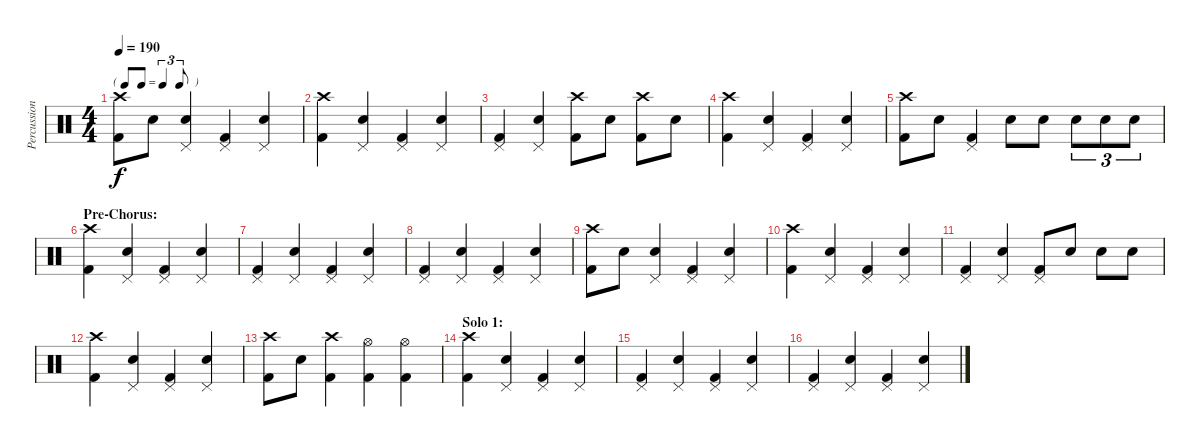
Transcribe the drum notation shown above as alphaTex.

\track ("Percussion" "Percussion") {instrument percussion}
\staff {score}
\articulation defaults
\ts (4 4)
\tf triplet8th
\tempo 190
\clef neutral
\ks c
("Crash high (hit)" "Kick (hit) 2").8{dy f} "Electric Snare (hit)".8 ("Pedal Hi-Hat (hit)" "Electric Snare (hit)").4 ("Pedal Hi-Hat (hit)" "Kick (hit) 2").4 ("Pedal Hi-Hat (hit)" "Electric Snare (hit)").4 |
("Crash high (hit)" "Kick (hit) 2").4 ("Pedal Hi-Hat (hit)" "Electric Snare (hit)").4 ("Pedal Hi-Hat (hit)" "Kick (hit) 2").4 ("Pedal Hi-Hat (hit)" "Electric Snare (hit)").4 |
("Pedal Hi-Hat (hit)" "Kick (hit) 2").4 ("Pedal Hi-Hat (hit)" "Electric Snare (hit)").4 ("Crash high (hit)" "Kick (hit) 2").8 "Electric Snare (hit)".8 ("Crash high (hit)" "Kick (hit) 2").8 "Electric Snare (hit)".8 |
("Crash high (hit)" "Kick (hit) 2").4 ("Pedal Hi-Hat (hit)" "Electric Snare (hit)").4 ("Pedal Hi-Hat (hit)" "Kick (hit) 2").4 ("Pedal Hi-Hat (hit)" "Electric Snare (hit)").4 |
("Crash high (hit)" "Kick (hit) 2").8 "Electric Snare (hit)".8 ("Pedal Hi-Hat (hit)" "Kick (hit) 2").4 "Electric Snare (hit)".8 "Electric Snare (hit)".8 "Electric Snare (hit)".8{tu (3 2)} "Electric Snare (hit)".8{tu (3 2)} "Electric Snare (hit)".8{tu (3 2)} |
\section ("" "Pre-Chorus:")
("Crash high (hit)" "Kick (hit) 2").4 ("Pedal Hi-Hat (hit)" "Electric Snare (hit)").4 ("Pedal Hi-Hat (hit)" "Kick (hit) 2").4 ("Pedal Hi-Hat (hit)" "Electric Snare (hit)").4 |
("Pedal Hi-Hat (hit)" "Kick (hit) 2").4 ("Pedal Hi-Hat (hit)" "Electric Snare (hit)").4 ("Pedal Hi-Hat (hit)" "Kick (hit) 2").4 ("Pedal Hi-Hat (hit)" "Electric Snare (hit)").4 |
("Pedal Hi-Hat (hit)" "Kick (hit) 2").4 ("Pedal Hi-Hat (hit)" "Electric Snare (hit)").4 ("Pedal Hi-Hat (hit)" "Kick (hit) 2").4 ("Pedal Hi-Hat (hit)" "Electric Snare (hit)").4 |
("Crash high (hit)" "Kick (hit) 2").8 "Electric Snare (hit)".8 ("Pedal Hi-Hat (hit)" "Electric Snare (hit)").4 ("Pedal Hi-Hat (hit)" "Kick (hit) 2").4 ("Pedal Hi-Hat (hit)" "Electric Snare (hit)").4 |
("Crash high (hit)" "Kick (hit) 2").4 ("Pedal Hi-Hat (hit)" "Electric Snare (hit)").4 ("Pedal Hi-Hat (hit)" "Kick (hit) 2").4 ("Pedal Hi-Hat (hit)" "Electric Snare (hit)").4 |
("Pedal Hi-Hat (hit)" "Kick (hit) 2").4 ("Pedal Hi-Hat (hit)" "Electric Snare (hit)").4 ("Pedal Hi-Hat (hit)" "Kick (hit) 2").8 "Electric Snare (hit)".8 "Electric Snare (hit)".8 "Electric Snare (hit)".8 |
("Crash high (hit)" "Kick (hit) 2").4 ("Pedal Hi-Hat (hit)" "Electric Snare (hit)").4 ("Pedal Hi-Hat (hit)" "Kick (hit) 2").4 ("Pedal Hi-Hat (hit)" "Electric Snare (hit)").4 |
("Crash high (hit)" "Kick (hit) 2").8 "Electric Snare (hit)".8 ("Crash high (hit)" "Kick (hit) 2").4 ("Hi-Hat (open)" "Kick (hit) 2").4 ("Hi-Hat (open)" "Kick (hit) 2").4 |
\section ("" "Solo 1:")
("Crash high (hit)" "Kick (hit) 2").4 ("Pedal Hi-Hat (hit)" "Electric Snare (hit)").4 ("Pedal Hi-Hat (hit)" "Kick (hit) 2").4 ("Pedal Hi-Hat (hit)" "Electric Snare (hit)").4 |
("Pedal Hi-Hat (hit)" "Kick (hit) 2").4 ("Pedal Hi-Hat (hit)" "Electric Snare (hit)").4 ("Pedal Hi-Hat (hit)" "Kick (hit) 2").4 ("Pedal Hi-Hat (hit)" "Electric Snare (hit)").4 |
("Pedal Hi-Hat (hit)" "Kick (hit) 2").4 ("Pedal Hi-Hat (hit)" "Electric Snare (hit)").4 ("Pedal Hi-Hat (hit)" "Kick (hit) 2").4 ("Pedal Hi-Hat (hit)" "Electric Snare (hit)").4
